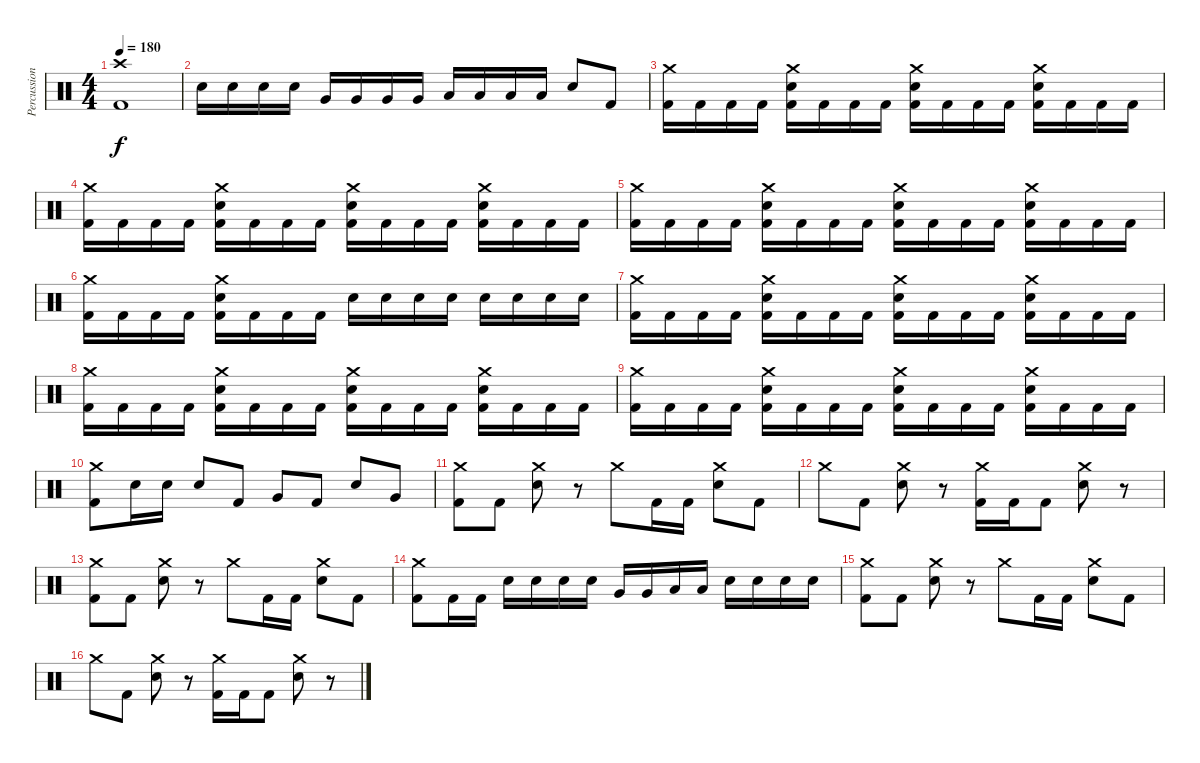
\track ("Percussions" "Percussion") {instrument percussion}
\staff {score}
\articulation defaults
\ts (4 4)
\tempo 180
\clef neutral
\ks c
("Crash high (hit)" "Kick (hit) 2").1{dy f} |
"Electric Snare (hit)".16 "Electric Snare (hit)".16 "Electric Snare (hit)".16 "Electric Snare (hit)".16 "Very Low Tom (hit)".16 "Very Low Tom (hit)".16 "Very Low Tom (hit)".16 "Very Low Tom (hit)".16 "Low Floor Tom (hit)".16 "Low Floor Tom (hit)".16 "Low Floor Tom (hit)".16 "Low Floor Tom (hit)".16 "Electric Snare (hit)".8 "Kick (hit) 2".8 |
("Crash medium (hit)" "Kick (hit) 2").16 "Kick (hit) 2".16 "Kick (hit) 2".16 "Kick (hit) 2".16 ("Crash medium (hit)" "Electric Snare (hit)" "Kick (hit) 2").16 "Kick (hit) 2".16 "Kick (hit) 2".16 "Kick (hit) 2".16 ("Crash medium (hit)" "Electric Snare (hit)" "Kick (hit) 2").16 "Kick (hit) 2".16 "Kick (hit) 2".16 "Kick (hit) 2".16 ("Crash medium (hit)" "Electric Snare (hit)" "Kick (hit) 2").16 "Kick (hit) 2".16 "Kick (hit) 2".16 "Kick (hit) 2".16 |
("Crash medium (hit)" "Kick (hit) 2").16 "Kick (hit) 2".16 "Kick (hit) 2".16 "Kick (hit) 2".16 ("Crash medium (hit)" "Electric Snare (hit)" "Kick (hit) 2").16 "Kick (hit) 2".16 "Kick (hit) 2".16 "Kick (hit) 2".16 ("Crash medium (hit)" "Electric Snare (hit)" "Kick (hit) 2").16 "Kick (hit) 2".16 "Kick (hit) 2".16 "Kick (hit) 2".16 ("Crash medium (hit)" "Electric Snare (hit)" "Kick (hit) 2").16 "Kick (hit) 2".16 "Kick (hit) 2".16 "Kick (hit) 2".16 |
("Crash medium (hit)" "Kick (hit) 2").16 "Kick (hit) 2".16 "Kick (hit) 2".16 "Kick (hit) 2".16 ("Crash medium (hit)" "Electric Snare (hit)" "Kick (hit) 2").16 "Kick (hit) 2".16 "Kick (hit) 2".16 "Kick (hit) 2".16 ("Crash medium (hit)" "Electric Snare (hit)" "Kick (hit) 2").16 "Kick (hit) 2".16 "Kick (hit) 2".16 "Kick (hit) 2".16 ("Crash medium (hit)" "Electric Snare (hit)" "Kick (hit) 2").16 "Kick (hit) 2".16 "Kick (hit) 2".16 "Kick (hit) 2".16 |
("Crash medium (hit)" "Kick (hit) 2").16 "Kick (hit) 2".16 "Kick (hit) 2".16 "Kick (hit) 2".16 ("Crash medium (hit)" "Electric Snare (hit)" "Kick (hit) 2").16 "Kick (hit) 2".16 "Kick (hit) 2".16 "Kick (hit) 2".16 "Electric Snare (hit)".16 "Electric Snare (hit)".16 "Electric Snare (hit)".16 "Electric Snare (hit)".16 "Electric Snare (hit)".16 "Electric Snare (hit)".16 "Electric Snare (hit)".16 "Electric Snare (hit)".16 |
("Crash medium (hit)" "Kick (hit) 2").16 "Kick (hit) 2".16 "Kick (hit) 2".16 "Kick (hit) 2".16 ("Crash medium (hit)" "Electric Snare (hit)" "Kick (hit) 2").16 "Kick (hit) 2".16 "Kick (hit) 2".16 "Kick (hit) 2".16 ("Crash medium (hit)" "Electric Snare (hit)" "Kick (hit) 2").16 "Kick (hit) 2".16 "Kick (hit) 2".16 "Kick (hit) 2".16 ("Crash medium (hit)" "Electric Snare (hit)" "Kick (hit) 2").16 "Kick (hit) 2".16 "Kick (hit) 2".16 "Kick (hit) 2".16 |
("Crash medium (hit)" "Kick (hit) 2").16 "Kick (hit) 2".16 "Kick (hit) 2".16 "Kick (hit) 2".16 ("Crash medium (hit)" "Electric Snare (hit)" "Kick (hit) 2").16 "Kick (hit) 2".16 "Kick (hit) 2".16 "Kick (hit) 2".16 ("Crash medium (hit)" "Electric Snare (hit)" "Kick (hit) 2").16 "Kick (hit) 2".16 "Kick (hit) 2".16 "Kick (hit) 2".16 ("Crash medium (hit)" "Electric Snare (hit)" "Kick (hit) 2").16 "Kick (hit) 2".16 "Kick (hit) 2".16 "Kick (hit) 2".16 |
("Crash medium (hit)" "Kick (hit) 2").16 "Kick (hit) 2".16 "Kick (hit) 2".16 "Kick (hit) 2".16 ("Crash medium (hit)" "Electric Snare (hit)" "Kick (hit) 2").16 "Kick (hit) 2".16 "Kick (hit) 2".16 "Kick (hit) 2".16 ("Crash medium (hit)" "Electric Snare (hit)" "Kick (hit) 2").16 "Kick (hit) 2".16 "Kick (hit) 2".16 "Kick (hit) 2".16 ("Crash medium (hit)" "Electric Snare (hit)" "Kick (hit) 2").16 "Kick (hit) 2".16 "Kick (hit) 2".16 "Kick (hit) 2".16 |
("Crash medium (hit)" "Kick (hit) 2").8 "Electric Snare (hit)".16 "Electric Snare (hit)".16 "Electric Snare (hit)".8 "Kick (hit) 2".8 "Very Low Tom (hit)".8 "Kick (hit) 2".8 "Electric Snare (hit)".8 "Very Low Tom (hit)".8 |
("Crash medium (hit)" "Kick (hit) 2").8 "Kick (hit) 2".8 ("Crash medium (hit)" "Electric Snare (hit)").8 r.8 "Crash medium (hit)".8 "Kick (hit) 2".16 "Kick (hit) 2".16 ("Crash medium (hit)" "Electric Snare (hit)").8 "Kick (hit) 2".8 |
"Crash medium (hit)".8 "Kick (hit) 2".8 ("Crash medium (hit)" "Electric Snare (hit)").8 r.8 ("Crash medium (hit)" "Kick (hit) 2").16 "Kick (hit) 2".16 "Kick (hit) 2".8 ("Crash medium (hit)" "Electric Snare (hit)").8 r.8 |
("Crash medium (hit)" "Kick (hit) 2").8 "Kick (hit) 2".8 ("Crash medium (hit)" "Electric Snare (hit)").8 r.8 "Crash medium (hit)".8 "Kick (hit) 2".16 "Kick (hit) 2".16 ("Crash medium (hit)" "Electric Snare (hit)").8 "Kick (hit) 2".8 |
("Crash medium (hit)" "Kick (hit) 2").8 "Kick (hit) 2".16 "Kick (hit) 2".16 "Electric Snare (hit)".16 "Electric Snare (hit)".16 "Electric Snare (hit)".16 "Electric Snare (hit)".16 "Very Low Tom (hit)".16 "Very Low Tom (hit)".16 "Low Floor Tom (hit)".16 "Low Floor Tom (hit)".16 "Electric Snare (hit)".16 "Electric Snare (hit)".16 "Electric Snare (hit)".16 "Electric Snare (hit)".16 |
("Crash medium (hit)" "Kick (hit) 2").8 "Kick (hit) 2".8 ("Crash medium (hit)" "Electric Snare (hit)").8 r.8 "Crash medium (hit)".8 "Kick (hit) 2".16 "Kick (hit) 2".16 ("Crash medium (hit)" "Electric Snare (hit)").8 "Kick (hit) 2".8 |
"Crash medium (hit)".8 "Kick (hit) 2".8 ("Crash medium (hit)" "Electric Snare (hit)").8 r.8 ("Crash medium (hit)" "Kick (hit) 2").16 "Kick (hit) 2".16 "Kick (hit) 2".8 ("Crash medium (hit)" "Electric Snare (hit)").8 r.8
